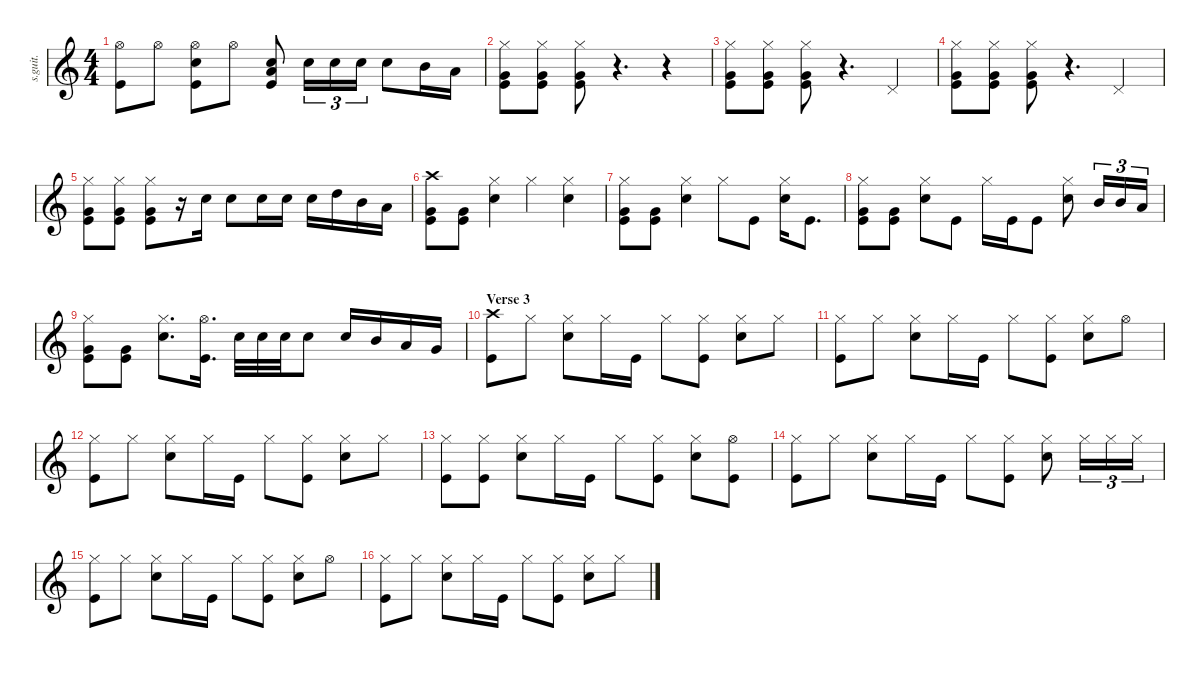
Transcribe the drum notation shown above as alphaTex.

\defaultSystemsLayout 4
\hideDynamics
\bracketExtendMode nobrackets
\track ("Ethan Torchio (Drums)" "s.guit.") {instrument percussion}
\staff {score}
\articulation defaults
\ts (4 4)
\tempo (134 hide)
\clef g2
\ks c
("Hi-Hat (open)" "Kick (hit)").8{lyrics (0 "") lyrics (1 "") lyrics (2 "") lyrics (3 "") lyrics (4 "") dy ff} "Hi-Hat (open)".8{lyrics (0 "") lyrics (1 "") lyrics (2 "") lyrics (3 "") lyrics (4 "")} ("Hi-Hat (open)" "Kick (hit)" "Snare (hit) 2").8{lyrics (0 "") lyrics (1 "") lyrics (2 "") lyrics (3 "") lyrics (4 "")} "Hi-Hat (open)".8{lyrics (0 "") lyrics (1 "") lyrics (2 "") lyrics (3 "") lyrics (4 "")} ("Snare (hit) 2" "Low Tom (hit)" "Kick (hit)").8{lyrics (0 "") lyrics (1 "") lyrics (2 "") lyrics (3 "") lyrics (4 "")} "Snare (hit) 2".16{tu (3 2) lyrics (0 "") lyrics (1 "") lyrics (2 "") lyrics (3 "") lyrics (4 "") dy p} "Snare (hit) 2".16{tu (3 2) lyrics (0 "") lyrics (1 "") lyrics (2 "") lyrics (3 "") lyrics (4 "") dy mp} "Snare (hit) 2".16{tu (3 2) lyrics (0 "") lyrics (1 "") lyrics (2 "") lyrics (3 "") lyrics (4 "") dy mf} "Snare (hit) 2".8{lyrics (0 "") lyrics (1 "") lyrics (2 "") lyrics (3 "") lyrics (4 "") dy f} "Mid Tom (hit)".16{lyrics (0 "") lyrics (1 "") lyrics (2 "") lyrics (3 "") lyrics (4 "") dy ff} "Low Tom (hit)".16{lyrics (0 "") lyrics (1 "") lyrics (2 "") lyrics (3 "") lyrics (4 "")} |
("Kick (hit)" "Very Low Tom (hit)" "Hi-Hat (closed)").8{lyrics (0 "") lyrics (1 "") lyrics (2 "") lyrics (3 "") lyrics (4 "")} ("Kick (hit)" "Very Low Tom (hit)" "Hi-Hat (closed)").8{lyrics (0 "") lyrics (1 "") lyrics (2 "") lyrics (3 "") lyrics (4 "")} ("Kick (hit)" "Very Low Tom (hit)" "Hi-Hat (closed)").8{lyrics (0 "") lyrics (1 "") lyrics (2 "") lyrics (3 "") lyrics (4 "")} r.4{d} r.4 |
("Kick (hit)" "Very Low Tom (hit)" "Hi-Hat (closed)").8{lyrics (0 "") lyrics (1 "") lyrics (2 "") lyrics (3 "") lyrics (4 "")} ("Kick (hit)" "Very Low Tom (hit)" "Hi-Hat (closed)").8{lyrics (0 "") lyrics (1 "") lyrics (2 "") lyrics (3 "") lyrics (4 "")} ("Kick (hit)" "Very Low Tom (hit)" "Hi-Hat (closed)").8{lyrics (0 "") lyrics (1 "") lyrics (2 "") lyrics (3 "") lyrics (4 "")} r.4{d} "Pedal Hi-Hat (hit)".4{lyrics (0 "") lyrics (1 "") lyrics (2 "") lyrics (3 "") lyrics (4 "") dy mp} |
("Kick (hit)" "Very Low Tom (hit)" "Hi-Hat (closed)").8{lyrics (0 "") lyrics (1 "") lyrics (2 "") lyrics (3 "") lyrics (4 "") dy ff} ("Kick (hit)" "Very Low Tom (hit)" "Hi-Hat (closed)").8{lyrics (0 "") lyrics (1 "") lyrics (2 "") lyrics (3 "") lyrics (4 "")} ("Kick (hit)" "Very Low Tom (hit)" "Hi-Hat (closed)").8{lyrics (0 "") lyrics (1 "") lyrics (2 "") lyrics (3 "") lyrics (4 "")} r.4{d} "Pedal Hi-Hat (hit)".4{lyrics (0 "") lyrics (1 "") lyrics (2 "") lyrics (3 "") lyrics (4 "") dy mp} |
("Kick (hit)" "Very Low Tom (hit)" "Hi-Hat (closed)").8{lyrics (0 "") lyrics (1 "") lyrics (2 "") lyrics (3 "") lyrics (4 "") dy ff} ("Kick (hit)" "Very Low Tom (hit)" "Hi-Hat (closed)").8{lyrics (0 "") lyrics (1 "") lyrics (2 "") lyrics (3 "") lyrics (4 "")} ("Kick (hit)" "Very Low Tom (hit)" "Hi-Hat (closed)").8{lyrics (0 "") lyrics (1 "") lyrics (2 "") lyrics (3 "") lyrics (4 "")} r.16 "Snare (hit) 2".16{lyrics (0 "") lyrics (1 "") lyrics (2 "") lyrics (3 "") lyrics (4 "")} "Snare (hit) 2".8{lyrics (0 "") lyrics (1 "") lyrics (2 "") lyrics (3 "") lyrics (4 "") dy mf} "Snare (hit) 2".16{lyrics (0 "") lyrics (1 "") lyrics (2 "") lyrics (3 "") lyrics (4 "")} "Snare (hit) 2".16{lyrics (0 "") lyrics (1 "") lyrics (2 "") lyrics (3 "") lyrics (4 "") dy ff} "Snare (hit) 2".16{lyrics (0 "") lyrics (1 "") lyrics (2 "") lyrics (3 "") lyrics (4 "")} "High Tom (hit)".16{lyrics (0 "") lyrics (1 "") lyrics (2 "") lyrics (3 "") lyrics (4 "")} "Mid Tom (hit)".16{lyrics (0 "") lyrics (1 "") lyrics (2 "") lyrics (3 "") lyrics (4 "")} "Low Tom (hit)".16{lyrics (0 "") lyrics (1 "") lyrics (2 "") lyrics (3 "") lyrics (4 "")} |
("Kick (hit)" "Very Low Tom (hit)" "Crash high (hit)").8{lyrics (0 "") lyrics (1 "") lyrics (2 "") lyrics (3 "") lyrics (4 "")} ("Kick (hit)" "Very Low Tom (hit)").8{lyrics (0 "") lyrics (1 "") lyrics (2 "") lyrics (3 "") lyrics (4 "")} ("Snare (hit) 2" "Hi-Hat (closed)").4{lyrics (0 "") lyrics (1 "") lyrics (2 "") lyrics (3 "") lyrics (4 "")} "Hi-Hat (closed)".4{lyrics (0 "") lyrics (1 "") lyrics (2 "") lyrics (3 "") lyrics (4 "")} ("Hi-Hat (closed)" "Snare (hit) 2").4{lyrics (0 "") lyrics (1 "") lyrics (2 "") lyrics (3 "") lyrics (4 "")} |
("Kick (hit)" "Very Low Tom (hit)" "Hi-Hat (closed)").8{lyrics (0 "") lyrics (1 "") lyrics (2 "") lyrics (3 "") lyrics (4 "")} ("Kick (hit)" "Very Low Tom (hit)").8{lyrics (0 "") lyrics (1 "") lyrics (2 "") lyrics (3 "") lyrics (4 "")} ("Snare (hit) 2" "Hi-Hat (closed)").4{lyrics (0 "") lyrics (1 "") lyrics (2 "") lyrics (3 "") lyrics (4 "")} "Hi-Hat (closed)".8{lyrics (0 "") lyrics (1 "") lyrics (2 "") lyrics (3 "") lyrics (4 "")} "Kick (hit)".8{lyrics (0 "") lyrics (1 "") lyrics (2 "") lyrics (3 "") lyrics (4 "")} ("Hi-Hat (closed)" "Snare (hit) 2").16{lyrics (0 "") lyrics (1 "") lyrics (2 "") lyrics (3 "") lyrics (4 "")} "Kick (hit)".8{d lyrics (0 "") lyrics (1 "") lyrics (2 "") lyrics (3 "") lyrics (4 "")} |
("Very Low Tom (hit)" "Kick (hit)" "Hi-Hat (closed)").8{lyrics (0 "") lyrics (1 "") lyrics (2 "") lyrics (3 "") lyrics (4 "")} ("Very Low Tom (hit)" "Kick (hit)").8{lyrics (0 "") lyrics (1 "") lyrics (2 "") lyrics (3 "") lyrics (4 "")} ("Hi-Hat (closed)" "Snare (hit) 2").8{lyrics (0 "") lyrics (1 "") lyrics (2 "") lyrics (3 "") lyrics (4 "")} "Kick (hit)".8{lyrics (0 "") lyrics (1 "") lyrics (2 "") lyrics (3 "") lyrics (4 "")} "Hi-Hat (closed)".16{lyrics (0 "") lyrics (1 "") lyrics (2 "") lyrics (3 "") lyrics (4 "")} "Kick (hit)".16{lyrics (0 "") lyrics (1 "") lyrics (2 "") lyrics (3 "") lyrics (4 "")} "Kick (hit)".8{lyrics (0 "") lyrics (1 "") lyrics (2 "") lyrics (3 "") lyrics (4 "")} ("Hi-Hat (closed)" "Snare (hit) 2").8{lyrics (0 "") lyrics (1 "") lyrics (2 "") lyrics (3 "") lyrics (4 "")} "Mid Tom (hit)".16{tu (3 2) lyrics (0 "") lyrics (1 "") lyrics (2 "") lyrics (3 "") lyrics (4 "") dy mp} "Mid Tom (hit)".16{tu (3 2) lyrics (0 "") lyrics (1 "") lyrics (2 "") lyrics (3 "") lyrics (4 "") dy f} "Low Tom (hit)".16{tu (3 2) lyrics (0 "") lyrics (1 "") lyrics (2 "") lyrics (3 "") lyrics (4 "") dy ff} |
("Kick (hit)" "Very Low Tom (hit)" "Hi-Hat (closed)").8{lyrics (0 "") lyrics (1 "") lyrics (2 "") lyrics (3 "") lyrics (4 "")} ("Very Low Tom (hit)" "Kick (hit)").8{lyrics (0 "") lyrics (1 "") lyrics (2 "") lyrics (3 "") lyrics (4 "")} ("Hi-Hat (closed)" "Snare (hit) 2").8{d lyrics (0 "") lyrics (1 "") lyrics (2 "") lyrics (3 "") lyrics (4 "")} ("Kick (hit)" "Hi-Hat (open)").16{d lyrics (0 "") lyrics (1 "") lyrics (2 "") lyrics (3 "") lyrics (4 "")} "Snare (hit) 2".32{lyrics (0 "") lyrics (1 "") lyrics (2 "") lyrics (3 "") lyrics (4 "") dy p} "Snare (hit) 2".32{lyrics (0 "") lyrics (1 "") lyrics (2 "") lyrics (3 "") lyrics (4 "") dy mf} "Snare (hit) 2".32{lyrics (0 "") lyrics (1 "") lyrics (2 "") lyrics (3 "") lyrics (4 "") dy f} "Snare (hit) 2".8{lyrics (0 "") lyrics (1 "") lyrics (2 "") lyrics (3 "") lyrics (4 "") dy ff} "Snare (hit) 2".16{lyrics (0 "") lyrics (1 "") lyrics (2 "") lyrics (3 "") lyrics (4 "")} "Mid Tom (hit)".16{lyrics (0 "") lyrics (1 "") lyrics (2 "") lyrics (3 "") lyrics (4 "")} "Low Tom (hit)".16{lyrics (0 "") lyrics (1 "") lyrics (2 "") lyrics (3 "") lyrics (4 "")} "Very Low Tom (hit)".16{lyrics (0 "") lyrics (1 "") lyrics (2 "") lyrics (3 "") lyrics (4 "")} |
\section ("" "Verse 3")
("Crash high (hit)" "Kick (hit)").8{lyrics (0 "") lyrics (1 "") lyrics (2 "") lyrics (3 "") lyrics (4 "")} "Hi-Hat (closed)".8{lyrics (0 "") lyrics (1 "") lyrics (2 "") lyrics (3 "") lyrics (4 "")} ("Snare (hit) 2" "Hi-Hat (closed)").8{lyrics (0 "") lyrics (1 "") lyrics (2 "") lyrics (3 "") lyrics (4 "")} "Hi-Hat (closed)".16{lyrics (0 "") lyrics (1 "") lyrics (2 "") lyrics (3 "") lyrics (4 "")} "Kick (hit)".16{lyrics (0 "") lyrics (1 "") lyrics (2 "") lyrics (3 "") lyrics (4 "")} "Hi-Hat (closed)".8{lyrics (0 "") lyrics (1 "") lyrics (2 "") lyrics (3 "") lyrics (4 "")} ("Hi-Hat (closed)" "Kick (hit)").8{lyrics (0 "") lyrics (1 "") lyrics (2 "") lyrics (3 "") lyrics (4 "")} ("Hi-Hat (closed)" "Snare (hit) 2").8{lyrics (0 "") lyrics (1 "") lyrics (2 "") lyrics (3 "") lyrics (4 "")} "Hi-Hat (closed)".8{lyrics (0 "") lyrics (1 "") lyrics (2 "") lyrics (3 "") lyrics (4 "")} |
("Hi-Hat (closed)" "Kick (hit)").8{lyrics (0 "") lyrics (1 "") lyrics (2 "") lyrics (3 "") lyrics (4 "")} "Hi-Hat (closed)".8{lyrics (0 "") lyrics (1 "") lyrics (2 "") lyrics (3 "") lyrics (4 "")} ("Snare (hit) 2" "Hi-Hat (closed)").8{lyrics (0 "") lyrics (1 "") lyrics (2 "") lyrics (3 "") lyrics (4 "")} "Hi-Hat (closed)".16{lyrics (0 "") lyrics (1 "") lyrics (2 "") lyrics (3 "") lyrics (4 "")} "Kick (hit)".16{lyrics (0 "") lyrics (1 "") lyrics (2 "") lyrics (3 "") lyrics (4 "")} "Hi-Hat (closed)".8{lyrics (0 "") lyrics (1 "") lyrics (2 "") lyrics (3 "") lyrics (4 "")} ("Hi-Hat (closed)" "Kick (hit)").8{lyrics (0 "") lyrics (1 "") lyrics (2 "") lyrics (3 "") lyrics (4 "")} ("Hi-Hat (closed)" "Snare (hit) 2").8{lyrics (0 "") lyrics (1 "") lyrics (2 "") lyrics (3 "") lyrics (4 "")} "Hi-Hat (open)".8{lyrics (0 "") lyrics (1 "") lyrics (2 "") lyrics (3 "") lyrics (4 "")} |
("Hi-Hat (closed)" "Kick (hit)").8{lyrics (0 "") lyrics (1 "") lyrics (2 "") lyrics (3 "") lyrics (4 "")} "Hi-Hat (closed)".8{lyrics (0 "") lyrics (1 "") lyrics (2 "") lyrics (3 "") lyrics (4 "")} ("Snare (hit) 2" "Hi-Hat (closed)").8{lyrics (0 "") lyrics (1 "") lyrics (2 "") lyrics (3 "") lyrics (4 "")} "Hi-Hat (closed)".16{lyrics (0 "") lyrics (1 "") lyrics (2 "") lyrics (3 "") lyrics (4 "")} "Kick (hit)".16{lyrics (0 "") lyrics (1 "") lyrics (2 "") lyrics (3 "") lyrics (4 "")} "Hi-Hat (closed)".8{lyrics (0 "") lyrics (1 "") lyrics (2 "") lyrics (3 "") lyrics (4 "")} ("Hi-Hat (closed)" "Kick (hit)").8{lyrics (0 "") lyrics (1 "") lyrics (2 "") lyrics (3 "") lyrics (4 "")} ("Hi-Hat (closed)" "Snare (hit) 2").8{lyrics (0 "") lyrics (1 "") lyrics (2 "") lyrics (3 "") lyrics (4 "")} "Hi-Hat (closed)".8{lyrics (0 "") lyrics (1 "") lyrics (2 "") lyrics (3 "") lyrics (4 "")} |
("Hi-Hat (closed)" "Kick (hit)").8{lyrics (0 "") lyrics (1 "") lyrics (2 "") lyrics (3 "") lyrics (4 "")} ("Hi-Hat (closed)" "Kick (hit)").8{lyrics (0 "") lyrics (1 "") lyrics (2 "") lyrics (3 "") lyrics (4 "")} ("Snare (hit) 2" "Hi-Hat (closed)").8{lyrics (0 "") lyrics (1 "") lyrics (2 "") lyrics (3 "") lyrics (4 "")} "Hi-Hat (closed)".16{lyrics (0 "") lyrics (1 "") lyrics (2 "") lyrics (3 "") lyrics (4 "")} "Kick (hit)".16{lyrics (0 "") lyrics (1 "") lyrics (2 "") lyrics (3 "") lyrics (4 "")} "Hi-Hat (closed)".8{lyrics (0 "") lyrics (1 "") lyrics (2 "") lyrics (3 "") lyrics (4 "")} ("Hi-Hat (closed)" "Kick (hit)").8{lyrics (0 "") lyrics (1 "") lyrics (2 "") lyrics (3 "") lyrics (4 "")} ("Hi-Hat (closed)" "Snare (hit) 2").8{lyrics (0 "") lyrics (1 "") lyrics (2 "") lyrics (3 "") lyrics (4 "")} ("Hi-Hat (open)" "Kick (hit)").8{lyrics (0 "") lyrics (1 "") lyrics (2 "") lyrics (3 "") lyrics (4 "")} |
("Hi-Hat (closed)" "Kick (hit)").8{lyrics (0 "") lyrics (1 "") lyrics (2 "") lyrics (3 "") lyrics (4 "")} "Hi-Hat (closed)".8{lyrics (0 "") lyrics (1 "") lyrics (2 "") lyrics (3 "") lyrics (4 "")} ("Snare (hit) 2" "Hi-Hat (closed)").8{lyrics (0 "") lyrics (1 "") lyrics (2 "") lyrics (3 "") lyrics (4 "")} "Hi-Hat (closed)".16{lyrics (0 "") lyrics (1 "") lyrics (2 "") lyrics (3 "") lyrics (4 "")} "Kick (hit)".16{lyrics (0 "") lyrics (1 "") lyrics (2 "") lyrics (3 "") lyrics (4 "")} "Hi-Hat (closed)".8{lyrics (0 "") lyrics (1 "") lyrics (2 "") lyrics (3 "") lyrics (4 "")} ("Hi-Hat (closed)" "Kick (hit)").8{lyrics (0 "") lyrics (1 "") lyrics (2 "") lyrics (3 "") lyrics (4 "")} ("Hi-Hat (closed)" "Snare (hit) 2").8{lyrics (0 "") lyrics (1 "") lyrics (2 "") lyrics (3 "") lyrics (4 "")} "Hi-Hat (closed)".16{tu (3 2) lyrics (0 "") lyrics (1 "") lyrics (2 "") lyrics (3 "") lyrics (4 "") dy mp} "Hi-Hat (closed)".16{tu (3 2) lyrics (0 "") lyrics (1 "") lyrics (2 "") lyrics (3 "") lyrics (4 "") dy mf} "Hi-Hat (closed)".16{tu (3 2) lyrics (0 "") lyrics (1 "") lyrics (2 "") lyrics (3 "") lyrics (4 "") dy ff} |
("Hi-Hat (closed)" "Kick (hit)").8{lyrics (0 "") lyrics (1 "") lyrics (2 "") lyrics (3 "") lyrics (4 "")} "Hi-Hat (closed)".8{lyrics (0 "") lyrics (1 "") lyrics (2 "") lyrics (3 "") lyrics (4 "")} ("Snare (hit) 2" "Hi-Hat (closed)").8{lyrics (0 "") lyrics (1 "") lyrics (2 "") lyrics (3 "") lyrics (4 "")} "Hi-Hat (closed)".16{lyrics (0 "") lyrics (1 "") lyrics (2 "") lyrics (3 "") lyrics (4 "")} "Kick (hit)".16{lyrics (0 "") lyrics (1 "") lyrics (2 "") lyrics (3 "") lyrics (4 "")} "Hi-Hat (closed)".8{lyrics (0 "") lyrics (1 "") lyrics (2 "") lyrics (3 "") lyrics (4 "")} ("Hi-Hat (closed)" "Kick (hit)").8{lyrics (0 "") lyrics (1 "") lyrics (2 "") lyrics (3 "") lyrics (4 "")} ("Hi-Hat (closed)" "Snare (hit) 2").8{lyrics (0 "") lyrics (1 "") lyrics (2 "") lyrics (3 "") lyrics (4 "")} "Hi-Hat (open)".8{lyrics (0 "") lyrics (1 "") lyrics (2 "") lyrics (3 "") lyrics (4 "")} |
("Hi-Hat (closed)" "Kick (hit)").8{lyrics (0 "") lyrics (1 "") lyrics (2 "") lyrics (3 "") lyrics (4 "")} "Hi-Hat (closed)".8{lyrics (0 "") lyrics (1 "") lyrics (2 "") lyrics (3 "") lyrics (4 "")} ("Snare (hit) 2" "Hi-Hat (closed)").8{lyrics (0 "") lyrics (1 "") lyrics (2 "") lyrics (3 "") lyrics (4 "")} "Hi-Hat (closed)".16{lyrics (0 "") lyrics (1 "") lyrics (2 "") lyrics (3 "") lyrics (4 "")} "Kick (hit)".16{lyrics (0 "") lyrics (1 "") lyrics (2 "") lyrics (3 "") lyrics (4 "")} "Hi-Hat (closed)".8{lyrics (0 "") lyrics (1 "") lyrics (2 "") lyrics (3 "") lyrics (4 "")} ("Hi-Hat (closed)" "Kick (hit)").8{lyrics (0 "") lyrics (1 "") lyrics (2 "") lyrics (3 "") lyrics (4 "")} ("Hi-Hat (closed)" "Snare (hit) 2").8{lyrics (0 "") lyrics (1 "") lyrics (2 "") lyrics (3 "") lyrics (4 "")} "Hi-Hat (closed)".8{lyrics (0 "") lyrics (1 "") lyrics (2 "") lyrics (3 "") lyrics (4 "")}
